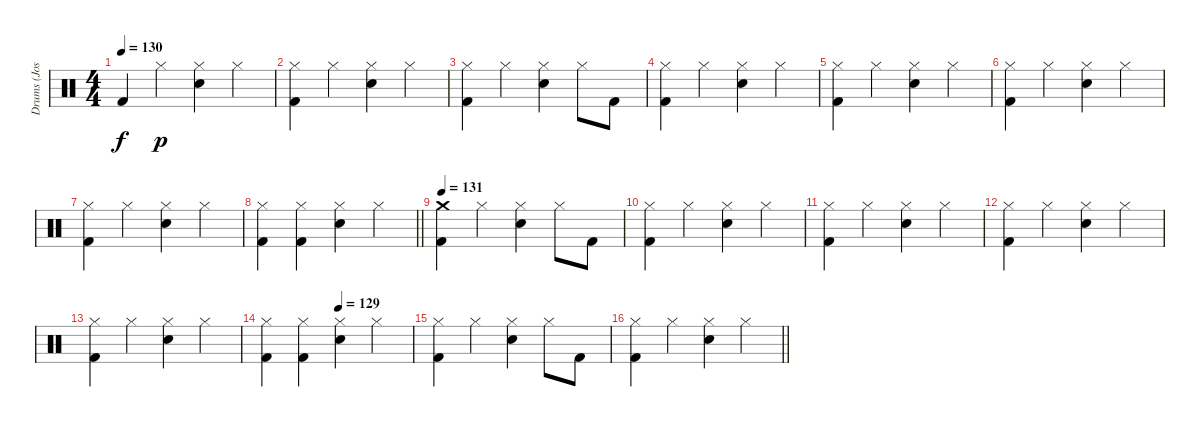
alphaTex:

\track ("Drums (Josh Freese)" "Drums (Jos") {instrument percussion}
\staff {score}
\articulation defaults
\ts (4 4)
\tempo 130
\clef neutral
\ks c "Kick (hit) 2".4{dy f} "Hi-Hat (closed)".4{dy p}
("Hi-Hat (closed)" "Electric Snare (hit)").4 "Hi-Hat (closed)".4 |
("Hi-Hat (closed)" "Kick (hit) 2").4 "Hi-Hat (closed)".4 ("Hi-Hat (closed)" "Electric Snare (hit)").4 "Hi-Hat (closed)".4 |
("Hi-Hat (closed)" "Kick (hit) 2").4 "Hi-Hat (closed)".4 ("Hi-Hat (closed)" "Electric Snare (hit)").4 "Hi-Hat (closed)".8 "Kick (hit) 2".8 |
("Hi-Hat (closed)" "Kick (hit) 2").4 "Hi-Hat (closed)".4 ("Hi-Hat (closed)" "Electric Snare (hit)").4 "Hi-Hat (closed)".4 |
("Hi-Hat (closed)" "Kick (hit) 2").4 "Hi-Hat (closed)".4 ("Hi-Hat (closed)" "Electric Snare (hit)").4 "Hi-Hat (closed)".4 |
("Hi-Hat (closed)" "Kick (hit) 2").4 "Hi-Hat (closed)".4 ("Hi-Hat (closed)" "Electric Snare (hit)").4 "Hi-Hat (closed)".4 |
("Hi-Hat (closed)" "Kick (hit) 2").4 "Hi-Hat (closed)".4 ("Hi-Hat (closed)" "Electric Snare (hit)").4 "Hi-Hat (closed)".4 |
\barLineRight lightlight
("Hi-Hat (closed)" "Kick (hit) 2").4 ("Hi-Hat (closed)" "Kick (hit) 2").4 ("Hi-Hat (closed)" "Electric Snare (hit)").4 "Hi-Hat (closed)".4 |
\tempo 131
("Crash medium (hit)" "Kick (hit) 2").4 "Hi-Hat (closed)".4 ("Hi-Hat (closed)" "Electric Snare (hit)").4 "Hi-Hat (closed)".8 "Kick (hit) 2".8 |
("Hi-Hat (closed)" "Kick (hit) 2").4 "Hi-Hat (closed)".4 ("Hi-Hat (closed)" "Electric Snare (hit)").4 "Hi-Hat (closed)".4 |
("Hi-Hat (closed)" "Kick (hit) 2").4 "Hi-Hat (closed)".4 ("Hi-Hat (closed)" "Electric Snare (hit)").4 "Hi-Hat (closed)".4 |
("Hi-Hat (closed)" "Kick (hit) 2").4 "Hi-Hat (closed)".4 ("Hi-Hat (closed)" "Electric Snare (hit)").4 "Hi-Hat (closed)".4 |
("Hi-Hat (closed)" "Kick (hit) 2").4 "Hi-Hat (closed)".4 ("Hi-Hat (closed)" "Electric Snare (hit)").4 "Hi-Hat (closed)".4 |
\tempo (129 0.5)
("Hi-Hat (closed)" "Kick (hit) 2").4 ("Hi-Hat (closed)" "Kick (hit) 2").4 ("Hi-Hat (closed)" "Electric Snare (hit)").4 "Hi-Hat (closed)".4 |
("Hi-Hat (closed)" "Kick (hit) 2").4 "Hi-Hat (closed)".4 ("Hi-Hat (closed)" "Electric Snare (hit)").4 "Hi-Hat (closed)".8 "Kick (hit) 2".8 |
\barLineRight lightlight
("Hi-Hat (closed)" "Kick (hit) 2").4 "Hi-Hat (closed)".4 ("Hi-Hat (closed)" "Electric Snare (hit)").4 "Hi-Hat (closed)".4
